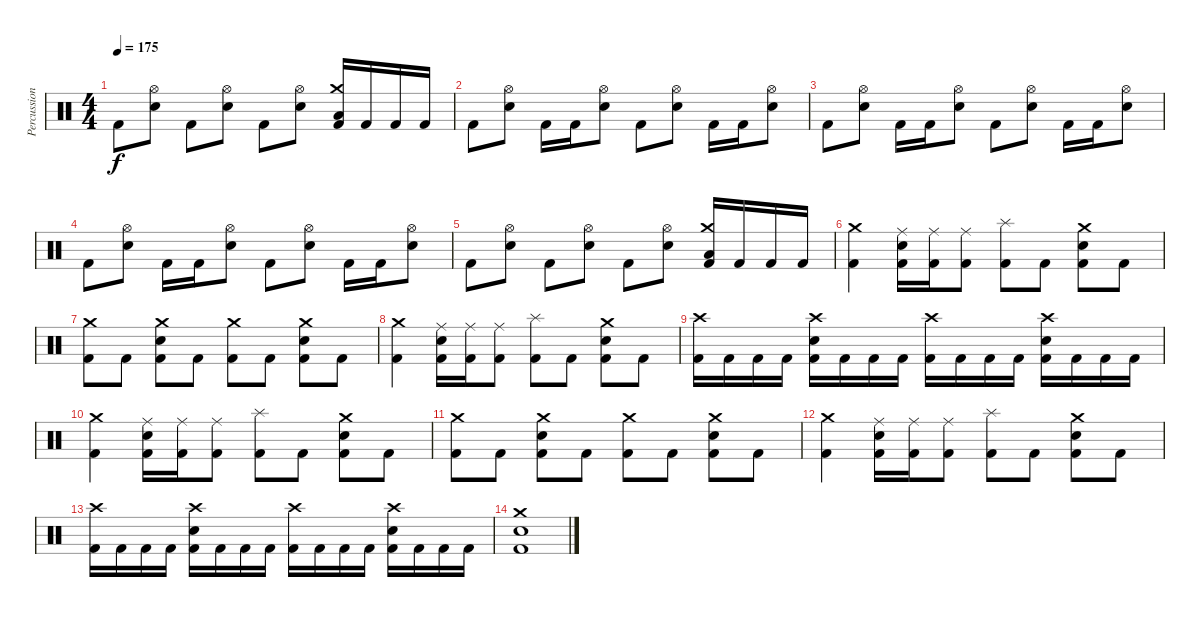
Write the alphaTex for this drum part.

\track ("Percussion" "Percussion") {instrument percussion}
\staff {score}
\articulation defaults
\ts (4 4)
\tempo 175
\clef neutral
\ks c "Kick (hit) 2".8{dy f}
("Hi-Hat (open)" "Electric Snare (hit)").8 "Kick (hit) 2".8 ("Hi-Hat (open)" "Electric Snare (hit)").8 "Kick (hit) 2".8 ("Hi-Hat (open)" "Electric Snare (hit)").8 ("Crash medium (hit)" "Low Tom (hit)" "Kick (hit) 2").16 "Kick (hit) 2".16 "Kick (hit) 2".16 "Kick (hit) 2".16 |
"Kick (hit) 2".8 ("Hi-Hat (open)" "Electric Snare (hit)").8 "Kick (hit) 2".16 "Kick (hit) 2".16 ("Hi-Hat (open)" "Electric Snare (hit)").8 "Kick (hit) 2".8 ("Hi-Hat (open)" "Electric Snare (hit)").8 "Kick (hit) 2".16 "Kick (hit) 2".16 ("Hi-Hat (open)" "Electric Snare (hit)").8 |
"Kick (hit) 2".8 ("Hi-Hat (open)" "Electric Snare (hit)").8 "Kick (hit) 2".16 "Kick (hit) 2".16 ("Hi-Hat (open)" "Electric Snare (hit)").8 "Kick (hit) 2".8 ("Hi-Hat (open)" "Electric Snare (hit)").8 "Kick (hit) 2".16 "Kick (hit) 2".16 ("Hi-Hat (open)" "Electric Snare (hit)").8 |
"Kick (hit) 2".8 ("Hi-Hat (open)" "Electric Snare (hit)").8 "Kick (hit) 2".16 "Kick (hit) 2".16 ("Hi-Hat (open)" "Electric Snare (hit)").8 "Kick (hit) 2".8 ("Hi-Hat (open)" "Electric Snare (hit)").8 "Kick (hit) 2".16 "Kick (hit) 2".16 ("Hi-Hat (open)" "Electric Snare (hit)").8 |
"Kick (hit) 2".8 ("Hi-Hat (open)" "Electric Snare (hit)").8 "Kick (hit) 2".8 ("Hi-Hat (open)" "Electric Snare (hit)").8 "Kick (hit) 2".8 ("Hi-Hat (open)" "Electric Snare (hit)").8 ("Crash medium (hit)" "Low Tom (hit)" "Kick (hit) 2").16 "Kick (hit) 2".16 "Kick (hit) 2".16 "Kick (hit) 2".16 |
("Crash medium (hit)" "Kick (hit) 2").4 ("Ride (middle)" "Electric Snare (hit)" "Kick (hit) 2").16 ("Ride (middle)" "Kick (hit) 2").16 ("Ride (middle)" "Kick (hit) 2").8 ("Splash (hit)" "Kick (hit) 2").8 "Kick (hit) 2".8 ("Crash medium (hit)" "Electric Snare (hit)" "Kick (hit) 2").8 "Kick (hit) 2".8 |
("Crash medium (hit)" "Kick (hit) 2").8 "Kick (hit) 2".8 ("Crash medium (hit)" "Electric Snare (hit)" "Kick (hit) 2").8 "Kick (hit) 2".8 ("Crash medium (hit)" "Kick (hit) 2").8 "Kick (hit) 2".8 ("Crash medium (hit)" "Electric Snare (hit)" "Kick (hit) 2").8 "Kick (hit) 2".8 |
("Crash medium (hit)" "Kick (hit) 2").4 ("Ride (middle)" "Electric Snare (hit)" "Kick (hit) 2").16 ("Ride (middle)" "Kick (hit) 2").16 ("Ride (middle)" "Kick (hit) 2").8 ("Splash (hit)" "Kick (hit) 2").8 "Kick (hit) 2".8 ("Crash medium (hit)" "Electric Snare (hit)" "Kick (hit) 2").8 "Kick (hit) 2".8 |
("Crash high (hit)" "Kick (hit) 2").16 "Kick (hit) 2".16 "Kick (hit) 2".16 "Kick (hit) 2".16 ("Crash high (hit)" "Electric Snare (hit)" "Kick (hit) 2").16 "Kick (hit) 2".16 "Kick (hit) 2".16 "Kick (hit) 2".16 ("Crash high (hit)" "Kick (hit) 2").16 "Kick (hit) 2".16 "Kick (hit) 2".16 "Kick (hit) 2".16 ("Crash high (hit)" "Electric Snare (hit)" "Kick (hit) 2").16 "Kick (hit) 2".16 "Kick (hit) 2".16 "Kick (hit) 2".16 |
("Crash medium (hit)" "Kick (hit) 2").4 ("Ride (middle)" "Electric Snare (hit)" "Kick (hit) 2").16 ("Ride (middle)" "Kick (hit) 2").16 ("Ride (middle)" "Kick (hit) 2").8 ("Splash (hit)" "Kick (hit) 2").8 "Kick (hit) 2".8 ("Crash medium (hit)" "Electric Snare (hit)" "Kick (hit) 2").8 "Kick (hit) 2".8 |
("Crash medium (hit)" "Kick (hit) 2").8 "Kick (hit) 2".8 ("Crash medium (hit)" "Electric Snare (hit)" "Kick (hit) 2").8 "Kick (hit) 2".8 ("Crash medium (hit)" "Kick (hit) 2").8 "Kick (hit) 2".8 ("Crash medium (hit)" "Electric Snare (hit)" "Kick (hit) 2").8 "Kick (hit) 2".8 |
("Crash medium (hit)" "Kick (hit) 2").4 ("Ride (middle)" "Electric Snare (hit)" "Kick (hit) 2").16 ("Ride (middle)" "Kick (hit) 2").16 ("Ride (middle)" "Kick (hit) 2").8 ("Splash (hit)" "Kick (hit) 2").8 "Kick (hit) 2".8 ("Crash medium (hit)" "Electric Snare (hit)" "Kick (hit) 2").8 "Kick (hit) 2".8 |
("Crash high (hit)" "Kick (hit) 2").16 "Kick (hit) 2".16 "Kick (hit) 2".16 "Kick (hit) 2".16 ("Crash high (hit)" "Electric Snare (hit)" "Kick (hit) 2").16 "Kick (hit) 2".16 "Kick (hit) 2".16 "Kick (hit) 2".16 ("Crash high (hit)" "Kick (hit) 2").16 "Kick (hit) 2".16 "Kick (hit) 2".16 "Kick (hit) 2".16 ("Crash high (hit)" "Electric Snare (hit)" "Kick (hit) 2").16 "Kick (hit) 2".16 "Kick (hit) 2".16 "Kick (hit) 2".16 |
("Crash medium (hit)" "Electric Snare (hit)" "Kick (hit) 2").1
